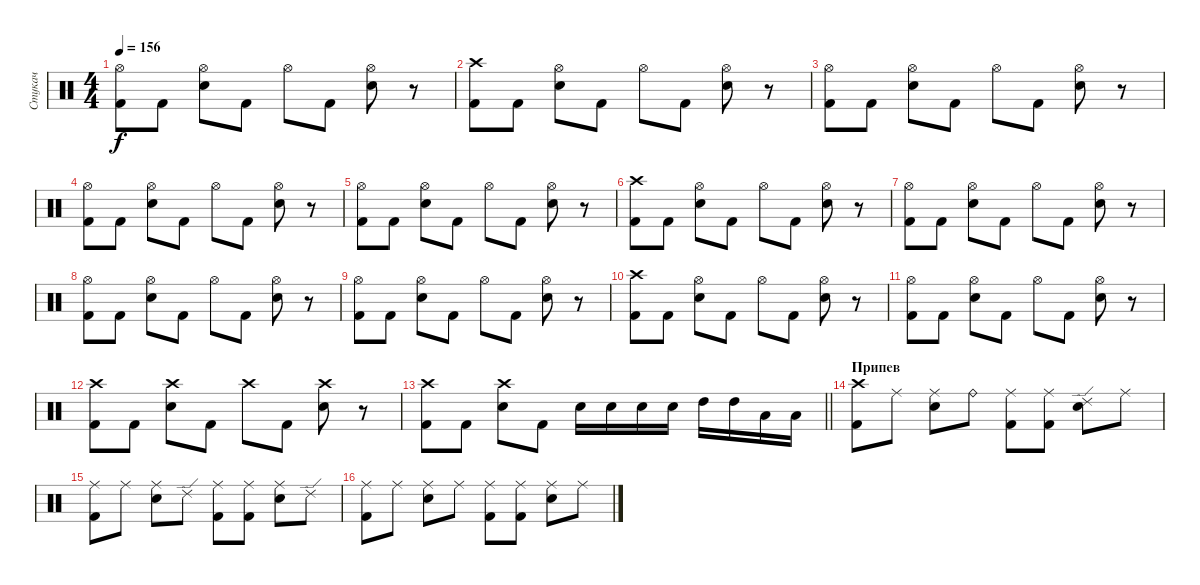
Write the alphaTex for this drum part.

\track ("Стукач" "Стукач") {instrument percussion}
\staff {score}
\articulation defaults
\ts (4 4)
\tempo 156
\clef neutral
\ks c
("Hi-Hat (open)" "Kick (hit) 2").8{dy f} "Kick (hit) 2".8 ("Hi-Hat (open)" "Snare (hit) 2").8 "Kick (hit) 2".8 "Hi-Hat (open)".8 "Kick (hit) 2".8 ("Hi-Hat (open)" "Snare (hit) 2").8 r.8 |
("Crash high (hit)" "Kick (hit) 2").8 "Kick (hit) 2".8 ("Hi-Hat (open)" "Snare (hit) 2").8 "Kick (hit) 2".8 "Hi-Hat (open)".8 "Kick (hit) 2".8 ("Hi-Hat (open)" "Snare (hit) 2").8 r.8 |
("Hi-Hat (open)" "Kick (hit) 2").8 "Kick (hit) 2".8 ("Hi-Hat (open)" "Snare (hit) 2").8 "Kick (hit) 2".8 "Hi-Hat (open)".8 "Kick (hit) 2".8 ("Hi-Hat (open)" "Snare (hit) 2").8 r.8 |
("Hi-Hat (open)" "Kick (hit) 2").8 "Kick (hit) 2".8 ("Hi-Hat (open)" "Snare (hit) 2").8 "Kick (hit) 2".8 "Hi-Hat (open)".8 "Kick (hit) 2".8 ("Hi-Hat (open)" "Snare (hit) 2").8 r.8 |
("Hi-Hat (open)" "Kick (hit) 2").8 "Kick (hit) 2".8 ("Hi-Hat (open)" "Snare (hit) 2").8 "Kick (hit) 2".8 "Hi-Hat (open)".8 "Kick (hit) 2".8 ("Hi-Hat (open)" "Snare (hit) 2").8 r.8 |
("Crash high (hit)" "Kick (hit) 2").8 "Kick (hit) 2".8 ("Hi-Hat (open)" "Snare (hit) 2").8 "Kick (hit) 2".8 "Hi-Hat (open)".8 "Kick (hit) 2".8 ("Hi-Hat (open)" "Snare (hit) 2").8 r.8 |
("Hi-Hat (open)" "Kick (hit) 2").8 "Kick (hit) 2".8 ("Hi-Hat (open)" "Snare (hit) 2").8 "Kick (hit) 2".8 "Hi-Hat (open)".8 "Kick (hit) 2".8 ("Hi-Hat (open)" "Snare (hit) 2").8 r.8 |
("Hi-Hat (open)" "Kick (hit) 2").8 "Kick (hit) 2".8 ("Hi-Hat (open)" "Snare (hit) 2").8 "Kick (hit) 2".8 "Hi-Hat (open)".8 "Kick (hit) 2".8 ("Hi-Hat (open)" "Snare (hit) 2").8 r.8 |
("Hi-Hat (open)" "Kick (hit) 2").8 "Kick (hit) 2".8 ("Hi-Hat (open)" "Snare (hit) 2").8 "Kick (hit) 2".8 "Hi-Hat (open)".8 "Kick (hit) 2".8 ("Hi-Hat (open)" "Snare (hit) 2").8 r.8 |
("Crash high (hit)" "Kick (hit) 2").8 "Kick (hit) 2".8 ("Hi-Hat (open)" "Snare (hit) 2").8 "Kick (hit) 2".8 "Hi-Hat (open)".8 "Kick (hit) 2".8 ("Hi-Hat (open)" "Snare (hit) 2").8 r.8 |
("Hi-Hat (open)" "Kick (hit) 2").8 "Kick (hit) 2".8 ("Hi-Hat (open)" "Snare (hit) 2").8 "Kick (hit) 2".8 "Hi-Hat (open)".8 "Kick (hit) 2".8 ("Hi-Hat (open)" "Snare (hit) 2").8 r.8 |
("Crash high (hit)" "Kick (hit) 2").8 "Kick (hit) 2".8 ("Crash high (hit)" "Snare (hit) 2").8 "Kick (hit) 2".8 "Crash high (hit)".8 "Kick (hit) 2".8 ("Crash high (hit)" "Snare (hit) 2").8 r.8 |
\barLineRight lightlight
("Crash high (hit)" "Kick (hit) 2").8 "Kick (hit) 2".8 ("Crash high (hit)" "Snare (hit) 2").8 "Kick (hit) 2".8 "Snare (hit) 2".16 "Snare (hit) 2".16 "Snare (hit) 2".16 "Snare (hit) 2".16 "High Tom (hit)".16 "High Tom (hit)".16 "Low Tom (hit)".16 "Low Tom (hit)".16 |
\section ("" "Припев")
("Crash high (hit)" "Kick (hit) 2").8 "Ride (middle)".8 ("Ride (middle)" "Snare (hit) 2").8 "Ride (bell)".8 ("Ride (middle)" "Kick (hit) 2").8 ("Ride (middle)" "Kick (hit) 2").8 ("Ride (edge) 2" "Snare (hit) 2").8 "Ride (middle)".8 |
("Ride (middle)" "Kick (hit) 2").8 "Ride (middle)".8 ("Ride (middle)" "Snare (hit) 2").8 "Ride (edge) 2".8 ("Ride (middle)" "Kick (hit) 2").8 ("Ride (middle)" "Kick (hit) 2").8 ("Ride (middle)" "Snare (hit) 2").8 "Ride (edge) 2".8 |
("Ride (middle)" "Kick (hit) 2").8 "Ride (middle)".8 ("Ride (middle)" "Snare (hit) 2").8 "Ride (middle)".8 ("Ride (middle)" "Kick (hit) 2").8 ("Ride (middle)" "Kick (hit) 2").8 ("Ride (middle)" "Snare (hit) 2").8 "Ride (middle)".8
